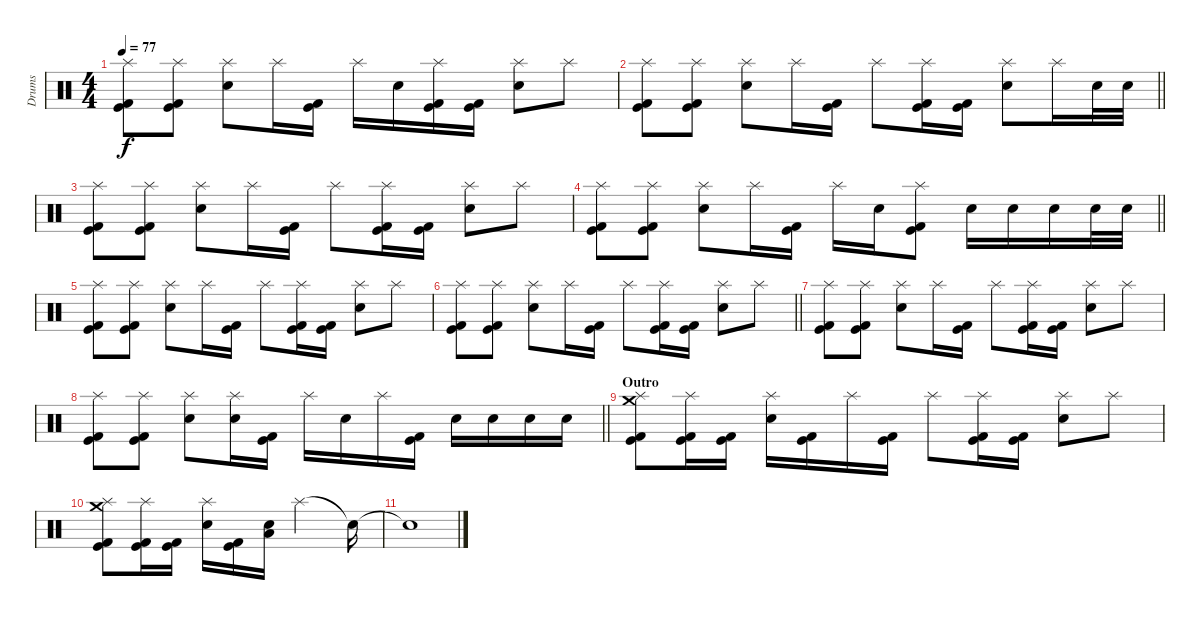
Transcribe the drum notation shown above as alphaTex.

\track ("Drums" "Drums") {instrument percussion}
\staff {score}
\articulation defaults
\ts (4 4)
\tempo 77
\clef neutral
\ks c
("Splash (hit)" "Kick (hit)" "Kick (hit) 2").8{dy f} ("Splash (hit)" "Kick (hit)" "Kick (hit) 2").8 ("Splash (hit)" "Snare (hit) 2").8 "Splash (hit)".16 ("Kick (hit)" "Kick (hit) 2").16 "Splash (hit)".16 "Snare (hit) 2".16 ("Splash (hit)" "Kick (hit)" "Kick (hit) 2").16 ("Kick (hit)" "Kick (hit) 2").16 ("Splash (hit)" "Snare (hit) 2").8 "Splash (hit)".8 |
\barLineRight lightlight
("Splash (hit)" "Kick (hit)" "Kick (hit) 2").8 ("Splash (hit)" "Kick (hit)" "Kick (hit) 2").8 ("Splash (hit)" "Snare (hit) 2").8 "Splash (hit)".16 ("Kick (hit)" "Kick (hit) 2").16 "Splash (hit)".8 ("Splash (hit)" "Kick (hit)" "Kick (hit) 2").16 ("Kick (hit)" "Kick (hit) 2").16 ("Splash (hit)" "Snare (hit) 2").8 "Splash (hit)".16 "Snare (hit) 2".32 "Snare (hit) 2".32 |
("Splash (hit)" "Kick (hit)" "Kick (hit) 2").8 ("Splash (hit)" "Kick (hit)" "Kick (hit) 2").8 ("Splash (hit)" "Snare (hit) 2").8 "Splash (hit)".16 ("Kick (hit)" "Kick (hit) 2").16 "Splash (hit)".8 ("Splash (hit)" "Kick (hit)" "Kick (hit) 2").16 ("Kick (hit)" "Kick (hit) 2").16 ("Splash (hit)" "Snare (hit) 2").8 "Splash (hit)".8 |
\barLineRight lightlight
("Splash (hit)" "Kick (hit)" "Kick (hit) 2").8 ("Splash (hit)" "Kick (hit)" "Kick (hit) 2").8 ("Splash (hit)" "Snare (hit) 2").8 "Splash (hit)".16 ("Kick (hit)" "Kick (hit) 2").16 "Splash (hit)".16 "Snare (hit) 2".16 ("Splash (hit)" "Kick (hit)" "Kick (hit) 2").8 "Snare (hit) 2".16 "Snare (hit) 2".16 "Snare (hit) 2".16 "Snare (hit) 2".32 "Snare (hit) 2".32 |
("Splash (hit)" "Kick (hit)" "Kick (hit) 2").8 ("Splash (hit)" "Kick (hit)" "Kick (hit) 2").8 ("Splash (hit)" "Snare (hit) 2").8 "Splash (hit)".16 ("Kick (hit)" "Kick (hit) 2").16 "Splash (hit)".8 ("Splash (hit)" "Kick (hit)" "Kick (hit) 2").16 ("Kick (hit)" "Kick (hit) 2").16 ("Splash (hit)" "Snare (hit) 2").8 "Splash (hit)".8 |
\barLineRight lightlight
("Splash (hit)" "Kick (hit)" "Kick (hit) 2").8 ("Splash (hit)" "Kick (hit)" "Kick (hit) 2").8 ("Splash (hit)" "Snare (hit) 2").8 "Splash (hit)".16 ("Kick (hit)" "Kick (hit) 2").16 "Splash (hit)".8 ("Splash (hit)" "Kick (hit)" "Kick (hit) 2").16 ("Kick (hit)" "Kick (hit) 2").16 ("Splash (hit)" "Snare (hit) 2").8 "Splash (hit)".8 |
("Splash (hit)" "Kick (hit)" "Kick (hit) 2").8 ("Splash (hit)" "Kick (hit)" "Kick (hit) 2").8 ("Splash (hit)" "Snare (hit) 2").8 "Splash (hit)".16 ("Kick (hit)" "Kick (hit) 2").16 "Splash (hit)".8 ("Splash (hit)" "Kick (hit)" "Kick (hit) 2").16 ("Kick (hit)" "Kick (hit) 2").16 ("Splash (hit)" "Snare (hit) 2").8 "Splash (hit)".8 |
\barLineRight lightlight
("Splash (hit)" "Kick (hit)" "Kick (hit) 2").8 ("Splash (hit)" "Kick (hit)" "Kick (hit) 2").8 ("Splash (hit)" "Snare (hit) 2").8 ("Splash (hit)" "Snare (hit) 2").16 ("Kick (hit)" "Kick (hit) 2").16 "Splash (hit)".16 "Snare (hit) 2".16 "Splash (hit)".16 ("Kick (hit)" "Kick (hit) 2").16 "Snare (hit) 2".16 "Snare (hit) 2".16 "Snare (hit) 2".16 "Snare (hit) 2".16 |
\section ("" "Outro")
("Splash (hit)" "Crash medium (hit)" "Kick (hit)" "Kick (hit) 2").8 ("Splash (hit)" "Kick (hit)" "Kick (hit) 2").16 ("Kick (hit)" "Kick (hit) 2").16 ("Splash (hit)" "Snare (hit) 2").16 ("Kick (hit)" "Kick (hit) 2").16 "Splash (hit)".16 ("Kick (hit)" "Kick (hit) 2").16 "Splash (hit)".8 ("Splash (hit)" "Kick (hit)" "Kick (hit) 2").16 ("Kick (hit)" "Kick (hit) 2").16 ("Splash (hit)" "Snare (hit) 2").8 "Splash (hit)".8 |
("Splash (hit)" "Crash medium (hit)" "Kick (hit)" "Kick (hit) 2").8 ("Splash (hit)" "Kick (hit)" "Kick (hit) 2").16 ("Kick (hit)" "Kick (hit) 2").16 ("Splash (hit)" "Snare (hit) 2").16 ("Kick (hit)" "Kick (hit) 2").16 ("Low Tom (hit)" "Snare (hit) 2").16 "Splash (hit)".2 "Snare (hit)"{t}.16 |
"Snare (hit)"{t}.1
